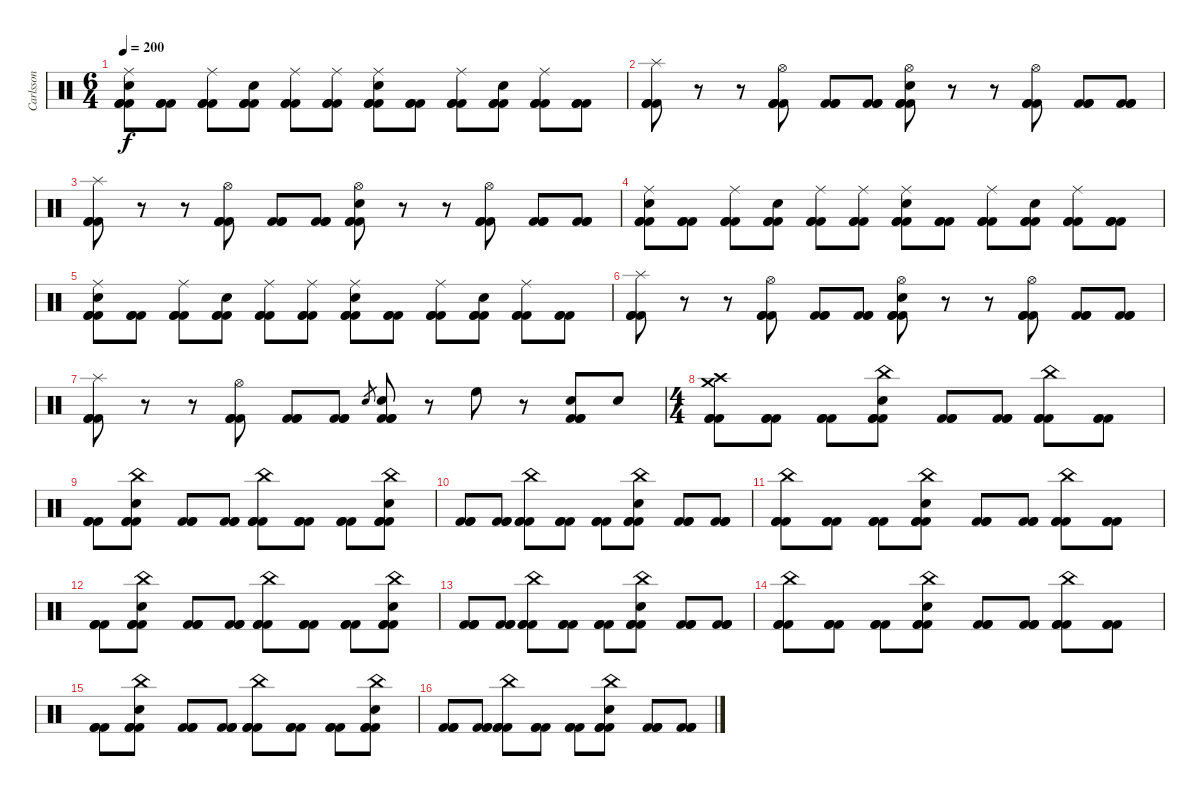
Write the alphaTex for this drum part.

\track ("Carlsson" "Carlsson") {instrument percussion}
\staff {score}
\articulation defaults
\ts (6 4)
\tempo 200
\clef neutral
\ks c
("Ride (middle)" "Snare (hit) 2" "Kick (hit) 2" "Kick (hit) 2" "Kick (hit) 2").8{dy f} ("Kick (hit) 2" "Kick (hit) 2" "Kick (hit) 2").8 ("Ride (middle)" "Kick (hit) 2" "Kick (hit) 2" "Kick (hit) 2").8 ("Snare (hit) 2" "Kick (hit) 2" "Kick (hit) 2" "Kick (hit) 2").8 ("Ride (middle)" "Kick (hit) 2" "Kick (hit) 2" "Kick (hit) 2").8 ("Ride (middle)" "Kick (hit) 2" "Kick (hit) 2" "Kick (hit) 2").8 ("Ride (middle)" "Snare (hit) 2" "Kick (hit) 2" "Kick (hit) 2" "Kick (hit) 2").8 ("Kick (hit) 2" "Kick (hit) 2" "Kick (hit) 2").8 ("Ride (middle)" "Kick (hit) 2" "Kick (hit) 2" "Kick (hit) 2").8 ("Snare (hit) 2" "Kick (hit) 2" "Kick (hit) 2" "Kick (hit) 2").8 ("Ride (middle)" "Kick (hit) 2" "Kick (hit) 2" "Kick (hit) 2").8 ("Kick (hit) 2" "Kick (hit) 2" "Kick (hit) 2").8 |
("Splash (hit)" "Kick (hit) 2" "Kick (hit) 2" "Kick (hit) 2").8 r.8 r.8 ("Hi-Hat (open)" "Kick (hit) 2" "Kick (hit) 2" "Kick (hit) 2").8 ("Kick (hit) 2" "Kick (hit) 2" "Kick (hit) 2").8 ("Kick (hit) 2" "Kick (hit) 2" "Kick (hit) 2").8 ("Hi-Hat (open)" "Snare (hit) 2" "Kick (hit) 2" "Kick (hit) 2" "Kick (hit) 2").8 r.8 r.8 ("Hi-Hat (open)" "Kick (hit) 2" "Kick (hit) 2" "Kick (hit) 2").8 ("Kick (hit) 2" "Kick (hit) 2" "Kick (hit) 2").8 ("Kick (hit) 2" "Kick (hit) 2" "Kick (hit) 2").8 |
("Splash (hit)" "Kick (hit) 2" "Kick (hit) 2" "Kick (hit) 2").8 r.8 r.8 ("Hi-Hat (open)" "Kick (hit) 2" "Kick (hit) 2" "Kick (hit) 2").8 ("Kick (hit) 2" "Kick (hit) 2" "Kick (hit) 2").8 ("Kick (hit) 2" "Kick (hit) 2" "Kick (hit) 2").8 ("Hi-Hat (open)" "Snare (hit) 2" "Kick (hit) 2" "Kick (hit) 2" "Kick (hit) 2").8 r.8 r.8 ("Hi-Hat (open)" "Kick (hit) 2" "Kick (hit) 2" "Kick (hit) 2").8 ("Kick (hit) 2" "Kick (hit) 2" "Kick (hit) 2").8 ("Kick (hit) 2" "Kick (hit) 2" "Kick (hit) 2").8 |
("Ride (middle)" "Snare (hit) 2" "Kick (hit) 2" "Kick (hit) 2" "Kick (hit) 2").8 ("Kick (hit) 2" "Kick (hit) 2" "Kick (hit) 2").8 ("Ride (middle)" "Kick (hit) 2" "Kick (hit) 2" "Kick (hit) 2").8 ("Snare (hit) 2" "Kick (hit) 2" "Kick (hit) 2" "Kick (hit) 2").8 ("Ride (middle)" "Kick (hit) 2" "Kick (hit) 2" "Kick (hit) 2").8 ("Ride (middle)" "Kick (hit) 2" "Kick (hit) 2" "Kick (hit) 2").8 ("Ride (middle)" "Snare (hit) 2" "Kick (hit) 2" "Kick (hit) 2" "Kick (hit) 2").8 ("Kick (hit) 2" "Kick (hit) 2" "Kick (hit) 2").8 ("Ride (middle)" "Kick (hit) 2" "Kick (hit) 2" "Kick (hit) 2").8 ("Snare (hit) 2" "Kick (hit) 2" "Kick (hit) 2" "Kick (hit) 2").8 ("Ride (middle)" "Kick (hit) 2" "Kick (hit) 2" "Kick (hit) 2").8 ("Kick (hit) 2" "Kick (hit) 2" "Kick (hit) 2").8 |
("Ride (middle)" "Snare (hit) 2" "Kick (hit) 2" "Kick (hit) 2" "Kick (hit) 2").8 ("Kick (hit) 2" "Kick (hit) 2" "Kick (hit) 2").8 ("Ride (middle)" "Kick (hit) 2" "Kick (hit) 2" "Kick (hit) 2").8 ("Snare (hit) 2" "Kick (hit) 2" "Kick (hit) 2" "Kick (hit) 2").8 ("Ride (middle)" "Kick (hit) 2" "Kick (hit) 2" "Kick (hit) 2").8 ("Ride (middle)" "Kick (hit) 2" "Kick (hit) 2" "Kick (hit) 2").8 ("Ride (middle)" "Snare (hit) 2" "Kick (hit) 2" "Kick (hit) 2" "Kick (hit) 2").8 ("Kick (hit) 2" "Kick (hit) 2" "Kick (hit) 2").8 ("Ride (middle)" "Kick (hit) 2" "Kick (hit) 2" "Kick (hit) 2").8 ("Snare (hit) 2" "Kick (hit) 2" "Kick (hit) 2" "Kick (hit) 2").8 ("Ride (middle)" "Kick (hit) 2" "Kick (hit) 2" "Kick (hit) 2").8 ("Kick (hit) 2" "Kick (hit) 2" "Kick (hit) 2").8 |
("Splash (hit)" "Kick (hit) 2" "Kick (hit) 2" "Kick (hit) 2").8 r.8 r.8 ("Hi-Hat (open)" "Kick (hit) 2" "Kick (hit) 2" "Kick (hit) 2").8 ("Kick (hit) 2" "Kick (hit) 2" "Kick (hit) 2").8 ("Kick (hit) 2" "Kick (hit) 2" "Kick (hit) 2").8 ("Hi-Hat (open)" "Snare (hit) 2" "Kick (hit) 2" "Kick (hit) 2" "Kick (hit) 2").8 r.8 r.8 ("Hi-Hat (open)" "Kick (hit) 2" "Kick (hit) 2" "Kick (hit) 2").8 ("Kick (hit) 2" "Kick (hit) 2" "Kick (hit) 2").8 ("Kick (hit) 2" "Kick (hit) 2" "Kick (hit) 2").8 |
("Splash (hit)" "Kick (hit) 2" "Kick (hit) 2" "Kick (hit) 2").8 r.8 r.8 ("Hi-Hat (open)" "Kick (hit) 2" "Kick (hit) 2" "Kick (hit) 2").8 ("Kick (hit) 2" "Kick (hit) 2" "Kick (hit) 2").8 ("Kick (hit) 2" "Kick (hit) 2" "Kick (hit) 2").8 "Snare (hit) 2".8{gr} ("Snare (hit) 2" "Kick (hit) 2" "Kick (hit) 2" "Kick (hit) 2").8 r.8 "High Floor Tom (hit)".8 r.8 ("Snare (hit) 2" "Kick (hit) 2" "Kick (hit) 2" "Kick (hit) 2").8 "Snare (hit) 2".8 |
\ts (4 4)
("Crash medium (hit)" "Crash high (hit)" "Kick (hit) 2" "Kick (hit) 2" "Kick (hit) 2").8 ("Kick (hit) 2" "Kick (hit) 2" "Kick (hit) 2").8 ("Kick (hit) 2" "Kick (hit) 2" "Kick (hit) 2").8 ("China (hit)" "Snare (hit) 2" "Kick (hit) 2" "Kick (hit) 2" "Kick (hit) 2").8 ("Kick (hit) 2" "Kick (hit) 2" "Kick (hit) 2").8 ("Kick (hit) 2" "Kick (hit) 2" "Kick (hit) 2").8 ("China (hit)" "Kick (hit) 2" "Kick (hit) 2" "Kick (hit) 2").8 ("Kick (hit) 2" "Kick (hit) 2" "Kick (hit) 2").8 |
("Kick (hit) 2" "Kick (hit) 2" "Kick (hit) 2").8 ("China (hit)" "Snare (hit) 2" "Kick (hit) 2" "Kick (hit) 2" "Kick (hit) 2").8 ("Kick (hit) 2" "Kick (hit) 2" "Kick (hit) 2").8 ("Kick (hit) 2" "Kick (hit) 2" "Kick (hit) 2").8 ("China (hit)" "Kick (hit) 2" "Kick (hit) 2" "Kick (hit) 2").8 ("Kick (hit) 2" "Kick (hit) 2" "Kick (hit) 2").8 ("Kick (hit) 2" "Kick (hit) 2" "Kick (hit) 2").8 ("China (hit)" "Snare (hit) 2" "Kick (hit) 2" "Kick (hit) 2" "Kick (hit) 2").8 |
("Kick (hit) 2" "Kick (hit) 2" "Kick (hit) 2").8 ("Kick (hit) 2" "Kick (hit) 2" "Kick (hit) 2").8 ("China (hit)" "Kick (hit) 2" "Kick (hit) 2" "Kick (hit) 2").8 ("Kick (hit) 2" "Kick (hit) 2" "Kick (hit) 2").8 ("Kick (hit) 2" "Kick (hit) 2" "Kick (hit) 2").8 ("China (hit)" "Snare (hit) 2" "Kick (hit) 2" "Kick (hit) 2" "Kick (hit) 2").8 ("Kick (hit) 2" "Kick (hit) 2" "Kick (hit) 2").8 ("Kick (hit) 2" "Kick (hit) 2" "Kick (hit) 2").8 |
("China (hit)" "Kick (hit) 2" "Kick (hit) 2" "Kick (hit) 2").8 ("Kick (hit) 2" "Kick (hit) 2" "Kick (hit) 2").8 ("Kick (hit) 2" "Kick (hit) 2" "Kick (hit) 2").8 ("China (hit)" "Snare (hit) 2" "Kick (hit) 2" "Kick (hit) 2" "Kick (hit) 2").8 ("Kick (hit) 2" "Kick (hit) 2" "Kick (hit) 2").8 ("Kick (hit) 2" "Kick (hit) 2" "Kick (hit) 2").8 ("China (hit)" "Kick (hit) 2" "Kick (hit) 2" "Kick (hit) 2").8 ("Kick (hit) 2" "Kick (hit) 2" "Kick (hit) 2").8 |
("Kick (hit) 2" "Kick (hit) 2" "Kick (hit) 2").8 ("China (hit)" "Snare (hit) 2" "Kick (hit) 2" "Kick (hit) 2" "Kick (hit) 2").8 ("Kick (hit) 2" "Kick (hit) 2" "Kick (hit) 2").8 ("Kick (hit) 2" "Kick (hit) 2" "Kick (hit) 2").8 ("China (hit)" "Kick (hit) 2" "Kick (hit) 2" "Kick (hit) 2").8 ("Kick (hit) 2" "Kick (hit) 2" "Kick (hit) 2").8 ("Kick (hit) 2" "Kick (hit) 2" "Kick (hit) 2").8 ("China (hit)" "Snare (hit) 2" "Kick (hit) 2" "Kick (hit) 2" "Kick (hit) 2").8 |
("Kick (hit) 2" "Kick (hit) 2" "Kick (hit) 2").8 ("Kick (hit) 2" "Kick (hit) 2" "Kick (hit) 2").8 ("China (hit)" "Kick (hit) 2" "Kick (hit) 2" "Kick (hit) 2").8 ("Kick (hit) 2" "Kick (hit) 2" "Kick (hit) 2").8 ("Kick (hit) 2" "Kick (hit) 2" "Kick (hit) 2").8 ("China (hit)" "Snare (hit) 2" "Kick (hit) 2" "Kick (hit) 2" "Kick (hit) 2").8 ("Kick (hit) 2" "Kick (hit) 2" "Kick (hit) 2").8 ("Kick (hit) 2" "Kick (hit) 2" "Kick (hit) 2").8 |
("China (hit)" "Kick (hit) 2" "Kick (hit) 2" "Kick (hit) 2").8 ("Kick (hit) 2" "Kick (hit) 2" "Kick (hit) 2").8 ("Kick (hit) 2" "Kick (hit) 2" "Kick (hit) 2").8 ("China (hit)" "Snare (hit) 2" "Kick (hit) 2" "Kick (hit) 2" "Kick (hit) 2").8 ("Kick (hit) 2" "Kick (hit) 2" "Kick (hit) 2").8 ("Kick (hit) 2" "Kick (hit) 2" "Kick (hit) 2").8 ("China (hit)" "Kick (hit) 2" "Kick (hit) 2" "Kick (hit) 2").8 ("Kick (hit) 2" "Kick (hit) 2" "Kick (hit) 2").8 |
("Kick (hit) 2" "Kick (hit) 2" "Kick (hit) 2").8 ("China (hit)" "Snare (hit) 2" "Kick (hit) 2" "Kick (hit) 2" "Kick (hit) 2").8 ("Kick (hit) 2" "Kick (hit) 2" "Kick (hit) 2").8 ("Kick (hit) 2" "Kick (hit) 2" "Kick (hit) 2").8 ("China (hit)" "Kick (hit) 2" "Kick (hit) 2" "Kick (hit) 2").8 ("Kick (hit) 2" "Kick (hit) 2" "Kick (hit) 2").8 ("Kick (hit) 2" "Kick (hit) 2" "Kick (hit) 2").8 ("China (hit)" "Snare (hit) 2" "Kick (hit) 2" "Kick (hit) 2" "Kick (hit) 2").8 |
("Kick (hit) 2" "Kick (hit) 2" "Kick (hit) 2").8 ("Kick (hit) 2" "Kick (hit) 2" "Kick (hit) 2").8 ("China (hit)" "Kick (hit) 2" "Kick (hit) 2" "Kick (hit) 2").8 ("Kick (hit) 2" "Kick (hit) 2" "Kick (hit) 2").8 ("Kick (hit) 2" "Kick (hit) 2" "Kick (hit) 2").8 ("China (hit)" "Snare (hit) 2" "Kick (hit) 2" "Kick (hit) 2" "Kick (hit) 2").8 ("Kick (hit) 2" "Kick (hit) 2" "Kick (hit) 2").8 ("Kick (hit) 2" "Kick (hit) 2" "Kick (hit) 2").8
